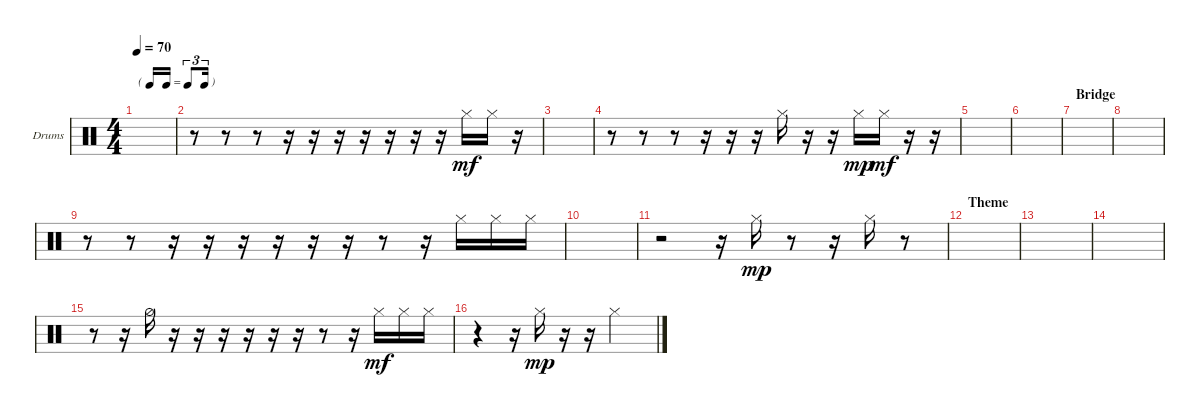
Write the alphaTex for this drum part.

\bracketExtendMode groupsimilarinstruments
\firstSystemTrackNameOrientation horizontal
\otherSystemsTrackNameOrientation horizontal
\track ("HH" "Drums") {instrument percussion}
\staff {score}
\articulation defaults
\ts (4 4)
\tf triplet16th
\tempo 70
\clef neutral
\ks aminor
|
r.8 r.8 r.8 r.16 r.16 r.16 r.16 r.16 r.16 r.16 "Hi-Hat (closed)".16{dy mf} "Hi-Hat (closed)".16 r.16 |
|
r.8 r.8 r.8 r.16 r.16 r.16 "Hi-Hat (closed)".16 r.16 r.16 "Hi-Hat (closed)".16{dy mp} "Hi-Hat (closed)".16{dy mf} r.16 r.16 |
|
|
\section ("" "Bridge")
|
|
r.8 r.8 r.16 r.16 r.16 r.16 r.16 r.16 r.8 r.16 "Hi-Hat (closed)".16 "Hi-Hat (closed)".16 "Hi-Hat (closed)".16 |
|
r.2 r.16 "Hi-Hat (closed)".16{dy mp} r.8 r.16 "Hi-Hat (closed)".16 r.8 |
\section ("" "Theme")
|
|
|
r.8 r.16 "Hi-Hat (half)".16 r.16 r.16 r.16 r.16 r.16 r.16 r.8 r.16 "Hi-Hat (closed)".16{dy mf} "Hi-Hat (closed)".16 "Hi-Hat (closed)".16 |
r.4 r.16 "Hi-Hat (closed)".16{dy mp} r.16 r.16 "Hi-Hat (closed)".2
